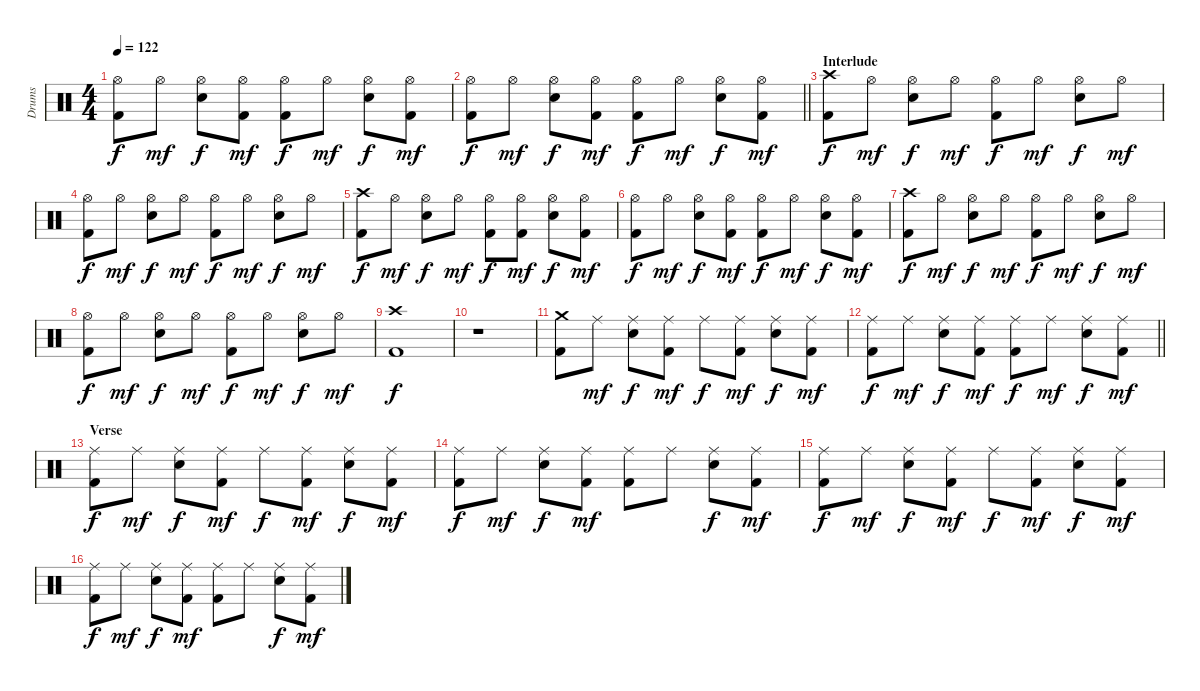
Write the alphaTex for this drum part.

\track ("Drums" "Drums") {instrument percussion}
\staff {score}
\articulation defaults
\ts (4 4)
\tempo 122
\clef neutral
\ks c
("Hi-Hat (open)" "Kick (hit) 2").8{dy f} "Hi-Hat (open)".8{dy mf} ("Hi-Hat (open)" "Snare (hit) 2").8{dy f} ("Hi-Hat (open)" "Kick (hit) 2").8{dy mf} ("Hi-Hat (open)" "Kick (hit) 2").8{dy f} "Hi-Hat (open)".8{dy mf} ("Hi-Hat (open)" "Snare (hit) 2").8{dy f} ("Hi-Hat (open)" "Kick (hit) 2").8{dy mf} |
\barLineRight lightlight
("Hi-Hat (open)" "Kick (hit) 2").8{dy f} "Hi-Hat (open)".8{dy mf} ("Hi-Hat (open)" "Snare (hit) 2").8{dy f} ("Hi-Hat (open)" "Kick (hit) 2").8{dy mf} ("Hi-Hat (open)" "Kick (hit) 2").8{dy f} "Hi-Hat (open)".8{dy mf} ("Hi-Hat (open)" "Snare (hit) 2").8{dy f} ("Hi-Hat (open)" "Kick (hit) 2").8{dy mf} |
\section ("" "Interlude")
("Crash high (hit)" "Kick (hit) 2").8{dy f} "Hi-Hat (open)".8{dy mf} ("Hi-Hat (open)" "Snare (hit) 2").8{dy f} "Hi-Hat (open)".8{dy mf} ("Hi-Hat (open)" "Kick (hit) 2").8{dy f} "Hi-Hat (open)".8{dy mf} ("Hi-Hat (open)" "Snare (hit) 2").8{dy f} "Hi-Hat (open)".8{dy mf} |
("Hi-Hat (open)" "Kick (hit) 2").8{dy f} "Hi-Hat (open)".8{dy mf} ("Hi-Hat (open)" "Snare (hit) 2").8{dy f} "Hi-Hat (open)".8{dy mf} ("Hi-Hat (open)" "Kick (hit) 2").8{dy f} "Hi-Hat (open)".8{dy mf} ("Hi-Hat (open)" "Snare (hit) 2").8{dy f} "Hi-Hat (open)".8{dy mf} |
("Crash high (hit)" "Kick (hit) 2").8{dy f} "Hi-Hat (open)".8{dy mf} ("Hi-Hat (open)" "Snare (hit) 2").8{dy f} "Hi-Hat (open)".8{dy mf} ("Hi-Hat (open)" "Kick (hit) 2").8{dy f} ("Hi-Hat (open)" "Kick (hit) 2").8{dy mf} ("Hi-Hat (open)" "Snare (hit) 2").8{dy f} ("Hi-Hat (open)" "Kick (hit) 2").8{dy mf} |
("Hi-Hat (open)" "Kick (hit) 2").8{dy f} "Hi-Hat (open)".8{dy mf} ("Hi-Hat (open)" "Snare (hit) 2").8{dy f} ("Hi-Hat (open)" "Kick (hit) 2").8{dy mf} ("Hi-Hat (open)" "Kick (hit) 2").8{dy f} "Hi-Hat (open)".8{dy mf} ("Hi-Hat (open)" "Snare (hit) 2").8{dy f} ("Hi-Hat (open)" "Kick (hit) 2").8{dy mf} |
("Crash high (hit)" "Kick (hit) 2").8{dy f} "Hi-Hat (open)".8{dy mf} ("Hi-Hat (open)" "Snare (hit) 2").8{dy f} "Hi-Hat (open)".8{dy mf} ("Hi-Hat (open)" "Kick (hit) 2").8{dy f} "Hi-Hat (open)".8{dy mf} ("Hi-Hat (open)" "Snare (hit) 2").8{dy f} "Hi-Hat (open)".8{dy mf} |
("Hi-Hat (open)" "Kick (hit) 2").8{dy f} "Hi-Hat (open)".8{dy mf} ("Hi-Hat (open)" "Snare (hit) 2").8{dy f} "Hi-Hat (open)".8{dy mf} ("Hi-Hat (open)" "Kick (hit) 2").8{dy f} "Hi-Hat (open)".8{dy mf} ("Hi-Hat (open)" "Snare (hit) 2").8{dy f} "Hi-Hat (open)".8{dy mf} |
("Crash high (hit)" "Kick (hit) 2").1{dy f} |
r.1 |
("Crash medium (hit)" "Kick (hit) 2").8 "Ride (middle)".8{dy mf} ("Ride (middle)" "Snare (hit) 2").8{dy f} ("Ride (middle)" "Kick (hit) 2").8{dy mf} "Ride (middle)".8{dy f} ("Ride (middle)" "Kick (hit) 2").8{dy mf} ("Ride (middle)" "Snare (hit) 2").8{dy f} ("Ride (middle)" "Kick (hit) 2").8{dy mf} |
\barLineRight lightlight
("Ride (middle)" "Kick (hit) 2").8{dy f} "Ride (middle)".8{dy mf} ("Ride (middle)" "Snare (hit) 2").8{dy f} ("Ride (middle)" "Kick (hit) 2").8{dy mf} ("Ride (middle)" "Kick (hit) 2").8{dy f} "Ride (middle)".8{dy mf} ("Ride (middle)" "Snare (hit) 2").8{dy f} ("Ride (middle)" "Kick (hit) 2").8{dy mf} |
\section ("" "Verse")
("Ride (middle)" "Kick (hit) 2").8{dy f} "Ride (middle)".8{dy mf} ("Ride (middle)" "Snare (hit) 2").8{dy f} ("Ride (middle)" "Kick (hit) 2").8{dy mf} "Ride (middle)".8{dy f} ("Ride (middle)" "Kick (hit) 2").8{dy mf} ("Ride (middle)" "Snare (hit) 2").8{dy f} ("Ride (middle)" "Kick (hit) 2").8{dy mf} |
("Ride (middle)" "Kick (hit) 2").8{dy f} "Ride (middle)".8{dy mf} ("Ride (middle)" "Snare (hit) 2").8{dy f} ("Ride (middle)" "Kick (hit) 2").8{dy mf} ("Ride (middle)" "Kick (hit) 2").8 "Ride (middle)".8 ("Ride (middle)" "Snare (hit) 2").8{dy f} ("Ride (middle)" "Kick (hit) 2").8{dy mf} |
("Ride (middle)" "Kick (hit) 2").8{dy f} "Ride (middle)".8{dy mf} ("Ride (middle)" "Snare (hit) 2").8{dy f} ("Ride (middle)" "Kick (hit) 2").8{dy mf} "Ride (middle)".8{dy f} ("Ride (middle)" "Kick (hit) 2").8{dy mf} ("Ride (middle)" "Snare (hit) 2").8{dy f} ("Ride (middle)" "Kick (hit) 2").8{dy mf} |
("Ride (middle)" "Kick (hit) 2").8{dy f} "Ride (middle)".8{dy mf} ("Ride (middle)" "Snare (hit) 2").8{dy f} ("Ride (middle)" "Kick (hit) 2").8{dy mf} ("Ride (middle)" "Kick (hit) 2").8 "Ride (middle)".8 ("Ride (middle)" "Snare (hit) 2").8{dy f} ("Ride (middle)" "Kick (hit) 2").8{dy mf}
